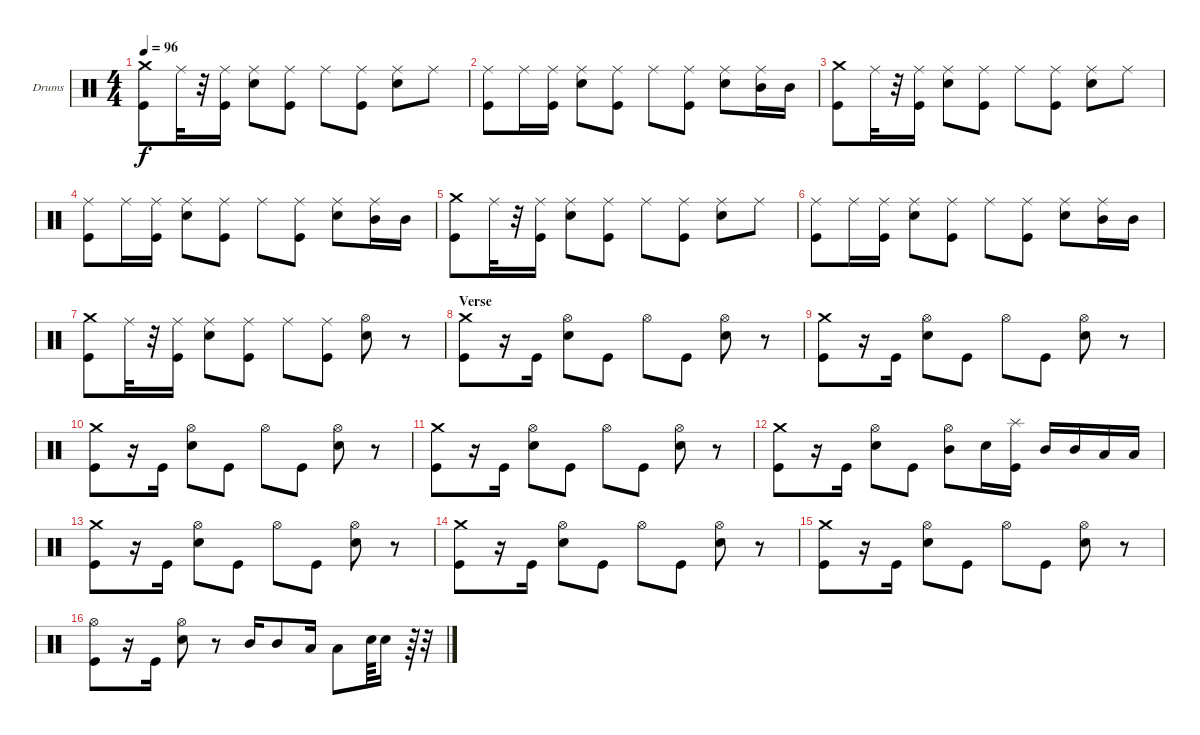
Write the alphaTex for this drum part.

\defaultSystemsLayout 4
\bracketExtendMode nobrackets
\firstSystemTrackNameOrientation horizontal
\otherSystemsTrackNameOrientation horizontal
\track ("Dave Abbruzzese" "Drums") {solo instrument percussion}
\staff {score}
\articulation defaults
\ts (4 4)
\tempo 96
\clef neutral
\ks c
("Crash medium (hit)" "Kick (hit)").8{dy f} "Ride (middle)".32 r.32 ("Ride (middle)" "Kick (hit)").16 ("Ride (middle)" "Snare (hit) 2").8 ("Ride (middle)" "Kick (hit)").8 "Ride (middle)".8 ("Ride (middle)" "Kick (hit)").8 ("Ride (middle)" "Snare (hit) 2").8 "Ride (middle)".8 |
("Ride (middle)" "Kick (hit)").8 "Ride (middle)".16 ("Ride (middle)" "Kick (hit)").16 ("Ride (middle)" "Snare (hit) 2").8 ("Ride (middle)" "Kick (hit)").8 "Ride (middle)".8 ("Ride (middle)" "Kick (hit)").8 ("Ride (middle)" "Snare (hit) 2").8 ("Ride (middle)" "Mid Tom (hit)").16 "Mid Tom (hit)".16 |
("Crash medium (hit)" "Kick (hit)").8 "Ride (middle)".32 r.32 ("Ride (middle)" "Kick (hit)").16 ("Ride (middle)" "Snare (hit) 2").8 ("Ride (middle)" "Kick (hit)").8 "Ride (middle)".8 ("Ride (middle)" "Kick (hit)").8 ("Ride (middle)" "Snare (hit) 2").8 "Ride (middle)".8 |
("Ride (middle)" "Kick (hit)").8 "Ride (middle)".16 ("Ride (middle)" "Kick (hit)").16 ("Ride (middle)" "Snare (hit) 2").8 ("Ride (middle)" "Kick (hit)").8 "Ride (middle)".8 ("Ride (middle)" "Kick (hit)").8 ("Ride (middle)" "Snare (hit) 2").8 ("Ride (middle)" "Mid Tom (hit)").16 "Mid Tom (hit)".16 |
("Crash medium (hit)" "Kick (hit)").8 "Ride (middle)".32 r.32 ("Ride (middle)" "Kick (hit)").16 ("Ride (middle)" "Snare (hit) 2").8 ("Ride (middle)" "Kick (hit)").8 "Ride (middle)".8 ("Ride (middle)" "Kick (hit)").8 ("Ride (middle)" "Snare (hit) 2").8 "Ride (middle)".8 |
("Ride (middle)" "Kick (hit)").8 "Ride (middle)".16 ("Ride (middle)" "Kick (hit)").16 ("Ride (middle)" "Snare (hit) 2").8 ("Ride (middle)" "Kick (hit)").8 "Ride (middle)".8 ("Ride (middle)" "Kick (hit)").8 ("Ride (middle)" "Snare (hit) 2").8 ("Ride (middle)" "Mid Tom (hit)").16 "Mid Tom (hit)".16 |
("Crash medium (hit)" "Kick (hit)").8 "Ride (middle)".32 r.32 ("Ride (middle)" "Kick (hit)").16 ("Ride (middle)" "Snare (hit) 2").8 ("Ride (middle)" "Kick (hit)").8 "Ride (middle)".8 ("Ride (middle)" "Kick (hit)").8 ("Hi-Hat (open)" "Snare (hit) 2").8 r.8 |
\section ("" "Verse")
("Crash medium (hit)" "Kick (hit)").8 r.16 "Kick (hit)".16 ("Hi-Hat (open)" "Snare (hit) 2").8 "Kick (hit)".8 "Hi-Hat (open)".8 "Kick (hit)".8 ("Hi-Hat (open)" "Snare (hit) 2").8 r.8 |
("Crash medium (hit)" "Kick (hit)").8 r.16 "Kick (hit)".16 ("Hi-Hat (open)" "Snare (hit) 2").8 "Kick (hit)".8 "Hi-Hat (open)".8 "Kick (hit)".8 ("Hi-Hat (open)" "Snare (hit) 2").8 r.8 |
("Crash medium (hit)" "Kick (hit)").8 r.16 "Kick (hit)".16 ("Hi-Hat (open)" "Snare (hit) 2").8 "Kick (hit)".8 "Hi-Hat (open)".8 "Kick (hit)".8 ("Hi-Hat (open)" "Snare (hit) 2").8 r.8 |
("Crash medium (hit)" "Kick (hit)").8 r.16 "Kick (hit)".16 ("Hi-Hat (open)" "Snare (hit) 2").8 "Kick (hit)".8 "Hi-Hat (open)".8 "Kick (hit)".8 ("Hi-Hat (open)" "Snare (hit) 2").8 r.8 |
("Crash medium (hit)" "Kick (hit)").8 r.16 "Kick (hit)".16 ("Hi-Hat (open)" "Snare (hit) 2").8 "Kick (hit)".8 ("Hi-Hat (open)" "Mid Tom (hit)").8 "Snare (hit) 2".16 ("Splash (hit)" "Kick (hit)").16 "Mid Tom (hit)".16 "Mid Tom (hit)".16 "Low Tom (hit)".16 "Low Tom (hit)".16 |
("Crash medium (hit)" "Kick (hit)").8 r.16 "Kick (hit)".16 ("Hi-Hat (open)" "Snare (hit) 2").8 "Kick (hit)".8 "Hi-Hat (open)".8 "Kick (hit)".8 ("Hi-Hat (open)" "Snare (hit) 2").8 r.8 |
("Crash medium (hit)" "Kick (hit)").8 r.16 "Kick (hit)".16 ("Hi-Hat (open)" "Snare (hit) 2").8 "Kick (hit)".8 "Hi-Hat (open)".8 "Kick (hit)".8 ("Hi-Hat (open)" "Snare (hit) 2").8 r.8 |
("Crash medium (hit)" "Kick (hit)").8 r.16 "Kick (hit)".16 ("Hi-Hat (open)" "Snare (hit) 2").8 "Kick (hit)".8 "Hi-Hat (open)".8 "Kick (hit)".8 ("Hi-Hat (open)" "Snare (hit) 2").8 r.8 |
("Hi-Hat (open)" "Kick (hit)").8 r.16 "Kick (hit)".16 ("Hi-Hat (open)" "Snare (hit) 2").8 r.8 "Mid Tom (hit)".16 "Mid Tom (hit)".8 "Low Tom (hit)".16 "Low Tom (hit)".8 "Snare (hit) 2".64 "Snare (hit) 2".16 r.64 r.32
